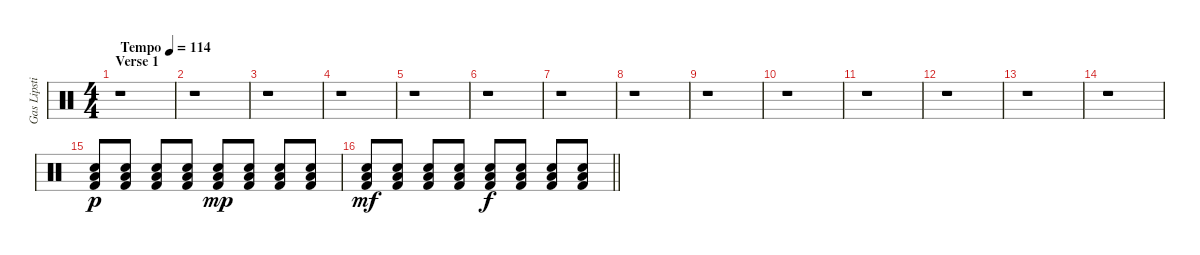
\track ("Gas Lipstick (Drums)" "Gas Lipsti") {instrument percussion}
\staff {score}
\articulation defaults
\ts (4 4)
\section ("" "Verse 1")
\tempo (114 "Tempo")
\clef neutral
\ks c
r.1{dy p} |
r.1 |
r.1 |
r.1 |
r.1 |
r.1 |
r.1 |
r.1 |
r.1 |
r.1 |
r.1 |
r.1 |
r.1 |
r.1 |
("Low Floor Tom (hit)" "Snare (hit) 2" "Kick (hit) 2").8 ("Low Floor Tom (hit)" "Snare (hit) 2" "Kick (hit) 2").8 ("Low Floor Tom (hit)" "Snare (hit) 2" "Kick (hit) 2").8 ("Low Floor Tom (hit)" "Snare (hit) 2" "Kick (hit) 2").8 ("Low Floor Tom (hit)" "Snare (hit) 2" "Kick (hit) 2").8{dy mp} ("Low Floor Tom (hit)" "Snare (hit) 2" "Kick (hit) 2").8 ("Low Floor Tom (hit)" "Snare (hit) 2" "Kick (hit) 2").8 ("Low Floor Tom (hit)" "Snare (hit) 2" "Kick (hit) 2").8 |
\barLineRight lightlight
("Low Floor Tom (hit)" "Snare (hit) 2" "Kick (hit) 2").8{dy mf} ("Low Floor Tom (hit)" "Snare (hit) 2" "Kick (hit) 2").8 ("Low Floor Tom (hit)" "Snare (hit) 2" "Kick (hit) 2").8 ("Low Floor Tom (hit)" "Snare (hit) 2" "Kick (hit) 2").8 ("Low Floor Tom (hit)" "Snare (hit) 2" "Kick (hit) 2").8{dy f} ("Low Floor Tom (hit)" "Snare (hit) 2" "Kick (hit) 2").8 ("Low Floor Tom (hit)" "Snare (hit) 2" "Kick (hit) 2").8 ("Low Floor Tom (hit)" "Snare (hit) 2" "Kick (hit) 2").8
